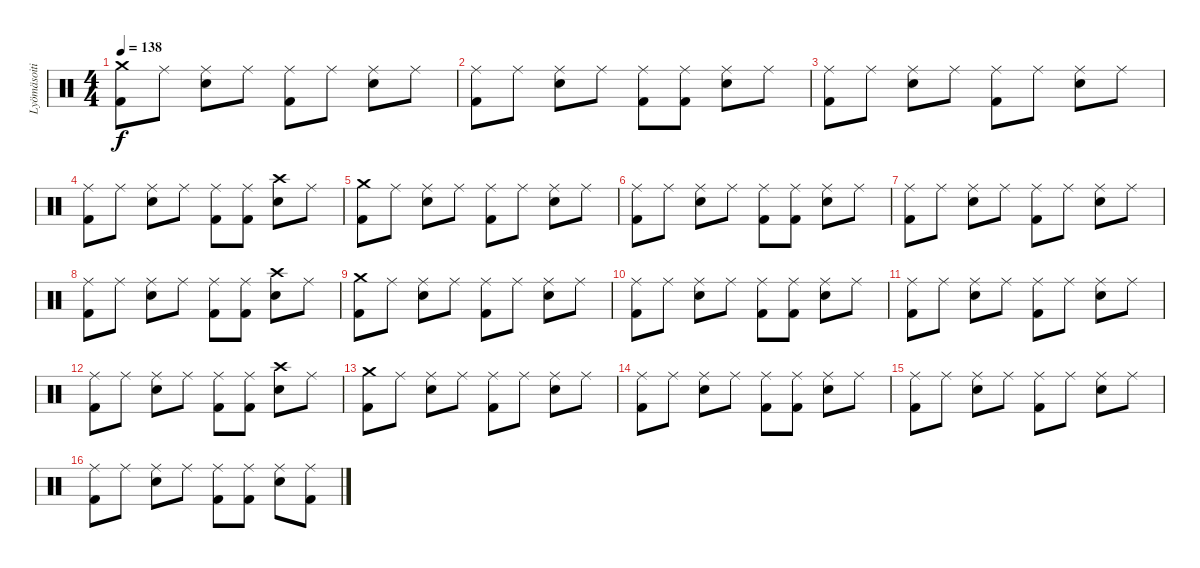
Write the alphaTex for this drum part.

\track ("Lyömäsoitin" "Lyömäsoiti") {instrument percussion}
\staff {score}
\articulation defaults
\ts (4 4)
\tempo 138
\clef neutral
\ks c
("Crash medium (hit)" "Kick (hit) 2").8{dy f} "Ride (middle)".8 ("Ride (middle)" "Electric Snare (hit)").8 "Ride (middle)".8 ("Ride (middle)" "Kick (hit) 2").8 "Ride (middle)".8 ("Ride (middle)" "Electric Snare (hit)").8 "Ride (middle)".8 |
("Ride (middle)" "Kick (hit) 2").8 "Ride (middle)".8 ("Ride (middle)" "Electric Snare (hit)").8 "Ride (middle)".8 ("Ride (middle)" "Kick (hit) 2").8 ("Ride (middle)" "Kick (hit) 2").8 ("Ride (middle)" "Electric Snare (hit)").8 "Ride (middle)".8 |
("Ride (middle)" "Kick (hit) 2").8 "Ride (middle)".8 ("Ride (middle)" "Electric Snare (hit)").8 "Ride (middle)".8 ("Ride (middle)" "Kick (hit) 2").8 "Ride (middle)".8 ("Ride (middle)" "Electric Snare (hit)").8 "Ride (middle)".8 |
("Ride (middle)" "Kick (hit) 2").8 "Ride (middle)".8 ("Ride (middle)" "Electric Snare (hit)").8 "Ride (middle)".8 ("Ride (middle)" "Kick (hit) 2").8 ("Ride (middle)" "Kick (hit) 2").8 ("Crash high (hit)" "Electric Snare (hit)").8 "Ride (middle)".8 |
("Crash medium (hit)" "Kick (hit) 2").8 "Ride (middle)".8 ("Ride (middle)" "Electric Snare (hit)").8 "Ride (middle)".8 ("Ride (middle)" "Kick (hit) 2").8 "Ride (middle)".8 ("Ride (middle)" "Electric Snare (hit)").8 "Ride (middle)".8 |
("Ride (middle)" "Kick (hit) 2").8 "Ride (middle)".8 ("Ride (middle)" "Electric Snare (hit)").8 "Ride (middle)".8 ("Ride (middle)" "Kick (hit) 2").8 ("Ride (middle)" "Kick (hit) 2").8 ("Ride (middle)" "Electric Snare (hit)").8 "Ride (middle)".8 |
("Ride (middle)" "Kick (hit) 2").8 "Ride (middle)".8 ("Ride (middle)" "Electric Snare (hit)").8 "Ride (middle)".8 ("Ride (middle)" "Kick (hit) 2").8 "Ride (middle)".8 ("Ride (middle)" "Electric Snare (hit)").8 "Ride (middle)".8 |
("Ride (middle)" "Kick (hit) 2").8 "Ride (middle)".8 ("Ride (middle)" "Electric Snare (hit)").8 "Ride (middle)".8 ("Ride (middle)" "Kick (hit) 2").8 ("Ride (middle)" "Kick (hit) 2").8 ("Crash high (hit)" "Electric Snare (hit)").8 "Ride (middle)".8 |
("Crash medium (hit)" "Kick (hit) 2").8 "Ride (middle)".8 ("Ride (middle)" "Electric Snare (hit)").8 "Ride (middle)".8 ("Ride (middle)" "Kick (hit) 2").8 "Ride (middle)".8 ("Ride (middle)" "Electric Snare (hit)").8 "Ride (middle)".8 |
("Ride (middle)" "Kick (hit) 2").8 "Ride (middle)".8 ("Ride (middle)" "Electric Snare (hit)").8 "Ride (middle)".8 ("Ride (middle)" "Kick (hit) 2").8 ("Ride (middle)" "Kick (hit) 2").8 ("Ride (middle)" "Electric Snare (hit)").8 "Ride (middle)".8 |
("Ride (middle)" "Kick (hit) 2").8 "Ride (middle)".8 ("Ride (middle)" "Electric Snare (hit)").8 "Ride (middle)".8 ("Ride (middle)" "Kick (hit) 2").8 "Ride (middle)".8 ("Ride (middle)" "Electric Snare (hit)").8 "Ride (middle)".8 |
("Ride (middle)" "Kick (hit) 2").8 "Ride (middle)".8 ("Ride (middle)" "Electric Snare (hit)").8 "Ride (middle)".8 ("Ride (middle)" "Kick (hit) 2").8 ("Ride (middle)" "Kick (hit) 2").8 ("Crash high (hit)" "Electric Snare (hit)").8 "Ride (middle)".8 |
("Crash medium (hit)" "Kick (hit) 2").8 "Ride (middle)".8 ("Ride (middle)" "Electric Snare (hit)").8 "Ride (middle)".8 ("Ride (middle)" "Kick (hit) 2").8 "Ride (middle)".8 ("Ride (middle)" "Electric Snare (hit)").8 "Ride (middle)".8 |
("Ride (middle)" "Kick (hit) 2").8 "Ride (middle)".8 ("Ride (middle)" "Electric Snare (hit)").8 "Ride (middle)".8 ("Ride (middle)" "Kick (hit) 2").8 ("Ride (middle)" "Kick (hit) 2").8 ("Ride (middle)" "Electric Snare (hit)").8 "Ride (middle)".8 |
("Ride (middle)" "Kick (hit) 2").8 "Ride (middle)".8 ("Ride (middle)" "Electric Snare (hit)").8 "Ride (middle)".8 ("Ride (middle)" "Kick (hit) 2").8 "Ride (middle)".8 ("Ride (middle)" "Electric Snare (hit)").8 "Ride (middle)".8 |
("Ride (middle)" "Kick (hit) 2").8 "Ride (middle)".8 ("Ride (middle)" "Electric Snare (hit)").8 "Ride (middle)".8 ("Ride (middle)" "Kick (hit) 2").8 ("Ride (middle)" "Kick (hit) 2").8 ("Ride (middle)" "Electric Snare (hit)").8 ("Ride (middle)" "Kick (hit) 2").8
